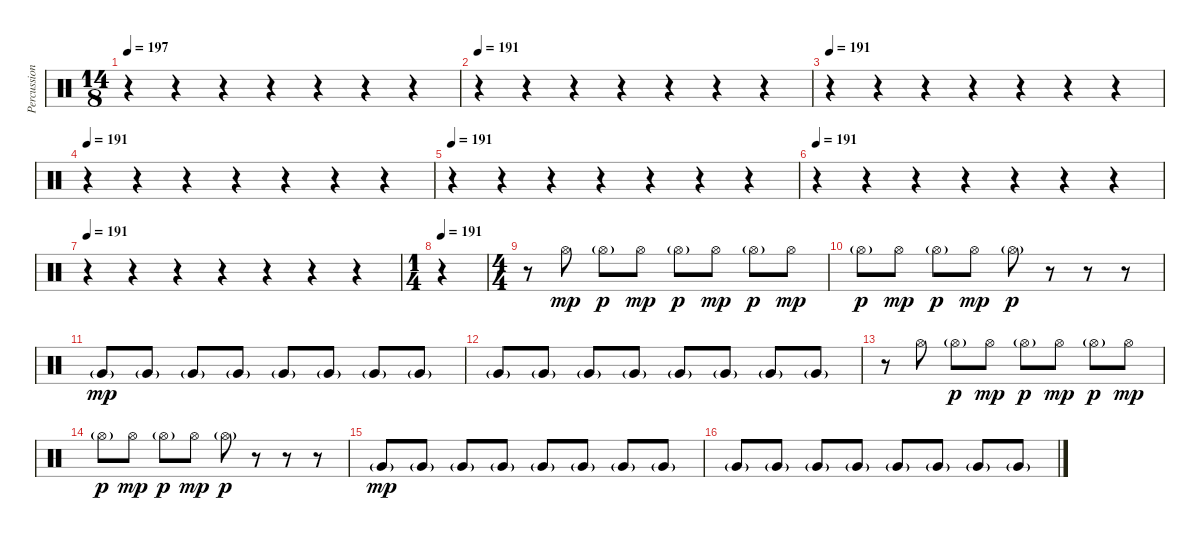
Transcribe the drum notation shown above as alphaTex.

\track ("Percussion2" "Percussion") {instrument percussion}
\staff {score}
\articulation defaults
\ts (14 8)
\tempo 197
\tempo 191
\tempo 197
\clef neutral
\ks c
r.4{dy mp} r.4 r.4 r.4 r.4 r.4 r.4 |
\tempo 191
r.4 r.4 r.4 r.4 r.4 r.4 r.4 |
\tempo 191
r.4 r.4 r.4 r.4 r.4 r.4 r.4 |
\tempo 191
r.4 r.4 r.4 r.4 r.4 r.4 r.4 |
\tempo 191
r.4 r.4 r.4 r.4 r.4 r.4 r.4 |
\tempo 191
r.4 r.4 r.4 r.4 r.4 r.4 r.4 |
\tempo 191
r.4 r.4 r.4 r.4 r.4 r.4 r.4 |
\ts (1 4)
\tempo 191
r.4 |
\ts (4 4)
r.8 "Hi-Hat (open)".8 "Hi-Hat (open)"{g}.8{dy p} "Hi-Hat (open)".8{dy mp} "Hi-Hat (open)"{g}.8{dy p} "Hi-Hat (open)".8{dy mp} "Hi-Hat (open)"{g}.8{dy p} "Hi-Hat (open)".8{dy mp} |
"Hi-Hat (open)"{g}.8{dy p} "Hi-Hat (open)".8{dy mp} "Hi-Hat (open)"{g}.8{dy p} "Hi-Hat (open)".8{dy mp} "Hi-Hat (open)"{g}.8{dy p} r.8 r.8 r.8 |
"Very Low Tom (hit)"{g}.8{dy mp} "Very Low Tom (hit)"{g}.8 "Very Low Tom (hit)"{g}.8 "Very Low Tom (hit)"{g}.8 "Very Low Tom (hit)"{g}.8 "Very Low Tom (hit)"{g}.8 "Very Low Tom (hit)"{g}.8 "Very Low Tom (hit)"{g}.8 |
"Very Low Tom (hit)"{g}.8 "Very Low Tom (hit)"{g}.8 "Very Low Tom (hit)"{g}.8 "Very Low Tom (hit)"{g}.8 "Very Low Tom (hit)"{g}.8 "Very Low Tom (hit)"{g}.8 "Very Low Tom (hit)"{g}.8 "Very Low Tom (hit)"{g}.8 |
r.8 "Hi-Hat (open)".8 "Hi-Hat (open)"{g}.8{dy p} "Hi-Hat (open)".8{dy mp} "Hi-Hat (open)"{g}.8{dy p} "Hi-Hat (open)".8{dy mp} "Hi-Hat (open)"{g}.8{dy p} "Hi-Hat (open)".8{dy mp} |
"Hi-Hat (open)"{g}.8{dy p} "Hi-Hat (open)".8{dy mp} "Hi-Hat (open)"{g}.8{dy p} "Hi-Hat (open)".8{dy mp} "Hi-Hat (open)"{g}.8{dy p} r.8 r.8 r.8 |
"Very Low Tom (hit)"{g}.8{dy mp} "Very Low Tom (hit)"{g}.8 "Very Low Tom (hit)"{g}.8 "Very Low Tom (hit)"{g}.8 "Very Low Tom (hit)"{g}.8 "Very Low Tom (hit)"{g}.8 "Very Low Tom (hit)"{g}.8 "Very Low Tom (hit)"{g}.8 |
"Very Low Tom (hit)"{g}.8 "Very Low Tom (hit)"{g}.8 "Very Low Tom (hit)"{g}.8 "Very Low Tom (hit)"{g}.8 "Very Low Tom (hit)"{g}.8 "Very Low Tom (hit)"{g}.8 "Very Low Tom (hit)"{g}.8 "Very Low Tom (hit)"{g}.8
